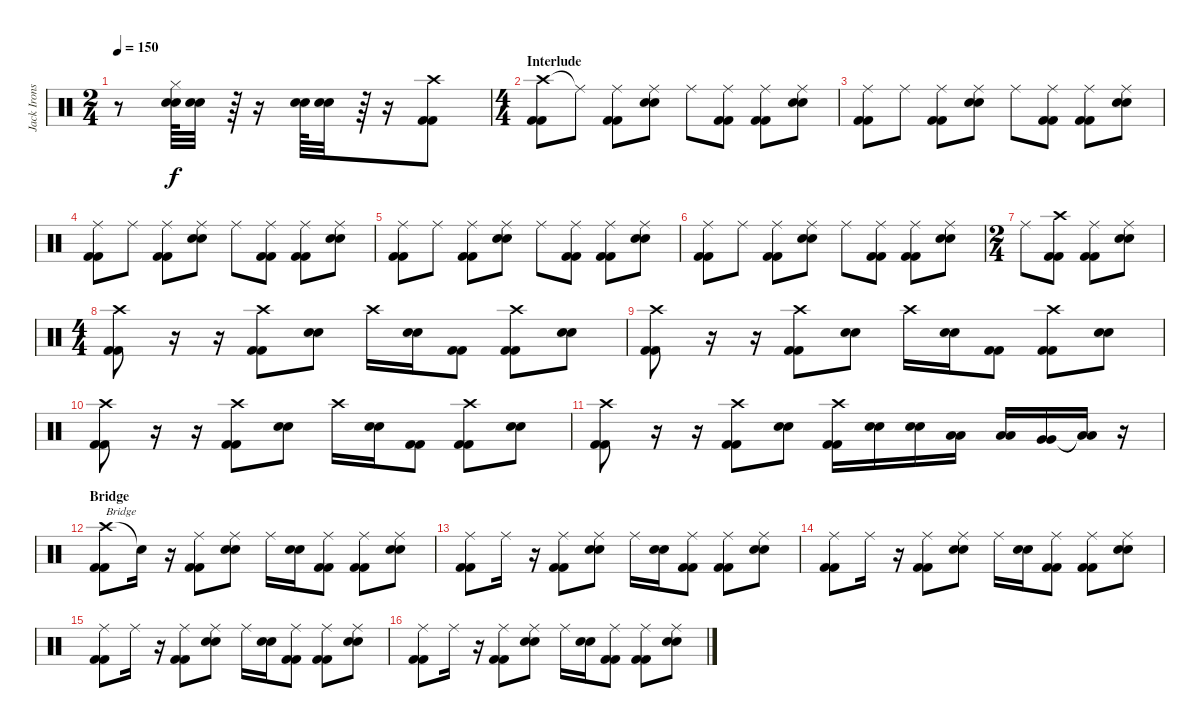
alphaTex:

\track ("Jack Irons" "Jack Irons") {instrument percussion}
\staff {score}
\articulation defaults
\ts (2 4)
\tempo 150
\clef neutral
\ks c
r.8{dy f} ("Hi-Hat (closed)" "Electric Snare (hit)" "Electric Snare (hit)").64 ("Electric Snare (hit)" "Electric Snare (hit)").32 r.64 r.16 ("Electric Snare (hit)" "Electric Snare (hit)").64 ("Electric Snare (hit)" "Electric Snare (hit)").32 r.64 r.16 ("Crash high (hit)" "Kick (hit) 2" "Kick (hit) 2").8 |
\ts (4 4)
\section ("" "Interlude")
("Crash high (hit)" "Kick (hit) 2" "Kick (hit) 2").8 "Ride (middle)"{t}.8 ("Ride (middle)" "Kick (hit) 2" "Kick (hit) 2").8 ("Ride (middle)" "Electric Snare (hit)" "Electric Snare (hit)").8 "Ride (middle)".8 ("Ride (middle)" "Kick (hit) 2" "Kick (hit) 2").8 ("Ride (middle)" "Kick (hit) 2" "Kick (hit) 2").8 ("Ride (middle)" "Electric Snare (hit)" "Electric Snare (hit)").8 |
("Ride (middle)" "Kick (hit) 2" "Kick (hit) 2").8 "Ride (middle)".8 ("Ride (middle)" "Kick (hit) 2" "Kick (hit) 2").8 ("Ride (middle)" "Electric Snare (hit)" "Electric Snare (hit)").8 "Ride (middle)".8 ("Ride (middle)" "Kick (hit) 2" "Kick (hit) 2").8 ("Ride (middle)" "Kick (hit) 2" "Kick (hit) 2").8 ("Ride (middle)" "Electric Snare (hit)" "Electric Snare (hit)").8 |
("Ride (middle)" "Kick (hit) 2" "Kick (hit) 2").8 "Ride (middle)".8 ("Ride (middle)" "Kick (hit) 2" "Kick (hit) 2").8 ("Ride (middle)" "Electric Snare (hit)" "Electric Snare (hit)").8 "Ride (middle)".8 ("Ride (middle)" "Kick (hit) 2" "Kick (hit) 2").8 ("Ride (middle)" "Kick (hit) 2" "Kick (hit) 2").8 ("Ride (middle)" "Electric Snare (hit)" "Electric Snare (hit)").8 |
("Ride (middle)" "Kick (hit) 2" "Kick (hit) 2").8 "Ride (middle)".8 ("Ride (middle)" "Kick (hit) 2" "Kick (hit) 2").8 ("Ride (middle)" "Electric Snare (hit)" "Electric Snare (hit)").8 "Ride (middle)".8 ("Ride (middle)" "Kick (hit) 2" "Kick (hit) 2").8 ("Ride (middle)" "Kick (hit) 2" "Kick (hit) 2").8 ("Ride (middle)" "Electric Snare (hit)" "Electric Snare (hit)").8 |
("Ride (middle)" "Kick (hit) 2" "Kick (hit) 2").8 "Ride (middle)".8 ("Ride (middle)" "Kick (hit) 2" "Kick (hit) 2").8 ("Ride (middle)" "Electric Snare (hit)" "Electric Snare (hit)").8 "Ride (middle)".8 ("Ride (middle)" "Kick (hit) 2" "Kick (hit) 2").8 ("Ride (middle)" "Kick (hit) 2" "Kick (hit) 2").8 ("Ride (middle)" "Electric Snare (hit)" "Electric Snare (hit)").8 |
\ts (2 4)
"Ride (middle)".8 ("Crash high (hit)" "Kick (hit) 2" "Kick (hit) 2").8 ("Ride (middle)" "Kick (hit) 2" "Kick (hit) 2").8 ("Ride (middle)" "Electric Snare (hit)" "Electric Snare (hit)").8 |
\ts (4 4)
("Crash high (hit)" "Kick (hit) 2" "Kick (hit) 2").8 r.16 r.16 ("Crash high (hit)" "Kick (hit) 2" "Kick (hit) 2").8 ("Electric Snare (hit)" "Electric Snare (hit)").8 "Crash high (hit)".16 ("Electric Snare (hit)" "Electric Snare (hit)").16 ("Kick (hit) 2" "Kick (hit) 2").8 ("Crash high (hit)" "Kick (hit) 2" "Kick (hit) 2").8 ("Electric Snare (hit)" "Electric Snare (hit)").8 |
("Crash high (hit)" "Kick (hit) 2" "Kick (hit) 2").8 r.16 r.16 ("Crash high (hit)" "Kick (hit) 2" "Kick (hit) 2").8 ("Electric Snare (hit)" "Electric Snare (hit)").8 "Crash high (hit)".16 ("Electric Snare (hit)" "Electric Snare (hit)").16 ("Kick (hit) 2" "Kick (hit) 2").8 ("Crash high (hit)" "Kick (hit) 2" "Kick (hit) 2").8 ("Electric Snare (hit)" "Electric Snare (hit)").8 |
("Crash high (hit)" "Kick (hit) 2" "Kick (hit) 2").8 r.16 r.16 ("Crash high (hit)" "Kick (hit) 2" "Kick (hit) 2").8 ("Electric Snare (hit)" "Electric Snare (hit)").8 "Crash high (hit)".16 ("Electric Snare (hit)" "Electric Snare (hit)").16 ("Kick (hit) 2" "Kick (hit) 2").8 ("Crash high (hit)" "Kick (hit) 2" "Kick (hit) 2").8 ("Electric Snare (hit)" "Electric Snare (hit)").8 |
("Crash high (hit)" "Kick (hit) 2" "Kick (hit) 2").8 r.16 r.16 ("Crash high (hit)" "Kick (hit) 2" "Kick (hit) 2").8 ("Electric Snare (hit)" "Electric Snare (hit)").8 ("Crash high (hit)" "Kick (hit) 2" "Kick (hit) 2").16 ("Electric Snare (hit)" "Electric Snare (hit)").16 ("Electric Snare (hit)" "Electric Snare (hit)").16 ("Low Tom (hit)" "Low Tom (hit)").16 ("Low Tom (hit)" "Low Tom (hit)").16 ("Very Low Tom (hit)" "Very Low Tom (hit)").16 ("Low Tom (hit)"{t} "Low Tom (hit)"{t}).16 r.16 |
\section ("" "Bridge")
("Crash high (hit)" "Kick (hit) 2" "Kick (hit) 2").8{txt "Bridge"} "Snare (hit)"{t}.16 r.16 ("Ride (middle)" "Kick (hit) 2" "Kick (hit) 2").8 ("Ride (middle)" "Electric Snare (hit)" "Electric Snare (hit)").8 "Ride (middle)".16 ("Electric Snare (hit)" "Electric Snare (hit)").16 ("Ride (middle)" "Kick (hit) 2" "Kick (hit) 2").8 ("Ride (middle)" "Kick (hit) 2" "Kick (hit) 2").8 ("Ride (middle)" "Electric Snare (hit)" "Electric Snare (hit)").8 |
("Ride (middle)" "Kick (hit) 2" "Kick (hit) 2").8 "Ride (middle)".16 r.16 ("Ride (middle)" "Kick (hit) 2" "Kick (hit) 2").8 ("Ride (middle)" "Electric Snare (hit)" "Electric Snare (hit)").8 "Ride (middle)".16 ("Electric Snare (hit)" "Electric Snare (hit)").16 ("Ride (middle)" "Kick (hit) 2" "Kick (hit) 2").8 ("Ride (middle)" "Kick (hit) 2" "Kick (hit) 2").8 ("Ride (middle)" "Electric Snare (hit)" "Electric Snare (hit)").8 |
("Ride (middle)" "Kick (hit) 2" "Kick (hit) 2").8 "Ride (middle)".16 r.16 ("Ride (middle)" "Kick (hit) 2" "Kick (hit) 2").8 ("Ride (middle)" "Electric Snare (hit)" "Electric Snare (hit)").8 "Ride (middle)".16 ("Electric Snare (hit)" "Electric Snare (hit)").16 ("Ride (middle)" "Kick (hit) 2" "Kick (hit) 2").8 ("Ride (middle)" "Kick (hit) 2" "Kick (hit) 2").8 ("Ride (middle)" "Electric Snare (hit)" "Electric Snare (hit)").8 |
("Ride (middle)" "Kick (hit) 2" "Kick (hit) 2").8 "Ride (middle)".16 r.16 ("Ride (middle)" "Kick (hit) 2" "Kick (hit) 2").8 ("Ride (middle)" "Electric Snare (hit)" "Electric Snare (hit)").8 "Ride (middle)".16 ("Electric Snare (hit)" "Electric Snare (hit)").16 ("Ride (middle)" "Kick (hit) 2" "Kick (hit) 2").8 ("Ride (middle)" "Kick (hit) 2" "Kick (hit) 2").8 ("Ride (middle)" "Electric Snare (hit)" "Electric Snare (hit)").8 |
("Ride (middle)" "Kick (hit) 2" "Kick (hit) 2").8 "Ride (middle)".16 r.16 ("Ride (middle)" "Kick (hit) 2" "Kick (hit) 2").8 ("Ride (middle)" "Electric Snare (hit)" "Electric Snare (hit)").8 "Ride (middle)".16 ("Electric Snare (hit)" "Electric Snare (hit)").16 ("Ride (middle)" "Kick (hit) 2" "Kick (hit) 2").8 ("Ride (middle)" "Kick (hit) 2" "Kick (hit) 2").8 ("Ride (middle)" "Electric Snare (hit)" "Electric Snare (hit)").8
